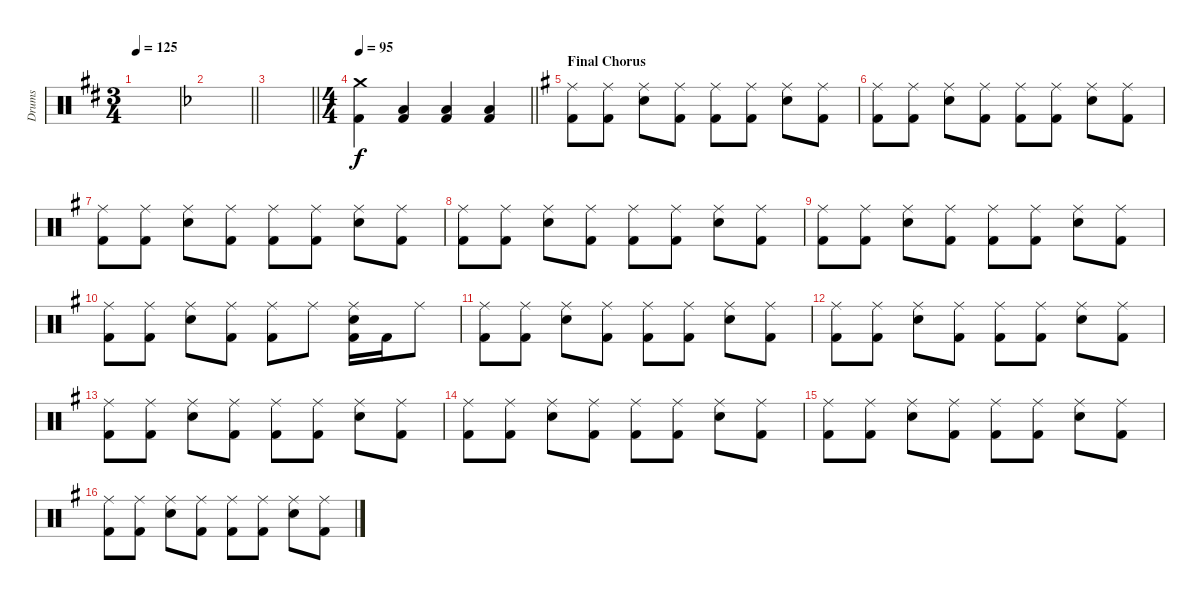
\track ("Drums" "Drums") {instrument percussion}
\staff {score}
\articulation defaults
\ts (3 4)
\tempo 125
\clef neutral
\ks d
|
\barLineRight lightlight
\ks f
|
\barLineRight lightlight
|
\ts (4 4)
\tempo 95
\barLineRight lightlight
("Crash medium (hit)" "Kick (hit) 2").4 ("Low Tom (hit)" "Kick (hit) 2").4 ("Low Tom (hit)" "Kick (hit) 2").4 ("Low Tom (hit)" "Kick (hit) 2").4 |
\section ("" "Final Chorus")
\ks g
("Ride (middle)" "Kick (hit) 2").8 ("Ride (middle)" "Kick (hit) 2").8 ("Ride (middle)" "Snare (hit) 2").8 ("Ride (middle)" "Kick (hit) 2").8 ("Ride (middle)" "Kick (hit) 2").8 ("Ride (middle)" "Kick (hit) 2").8 ("Ride (middle)" "Snare (hit) 2").8 ("Ride (middle)" "Kick (hit) 2").8 |
("Ride (middle)" "Kick (hit) 2").8 ("Ride (middle)" "Kick (hit) 2").8 ("Ride (middle)" "Snare (hit) 2").8 ("Ride (middle)" "Kick (hit) 2").8 ("Ride (middle)" "Kick (hit) 2").8 ("Ride (middle)" "Kick (hit) 2").8 ("Ride (middle)" "Snare (hit) 2").8 ("Ride (middle)" "Kick (hit) 2").8 |
("Ride (middle)" "Kick (hit) 2").8 ("Ride (middle)" "Kick (hit) 2").8 ("Ride (middle)" "Snare (hit) 2").8 ("Ride (middle)" "Kick (hit) 2").8 ("Ride (middle)" "Kick (hit) 2").8 ("Ride (middle)" "Kick (hit) 2").8 ("Ride (middle)" "Snare (hit) 2").8 ("Ride (middle)" "Kick (hit) 2").8 |
("Ride (middle)" "Kick (hit) 2").8 ("Ride (middle)" "Kick (hit) 2").8 ("Ride (middle)" "Snare (hit) 2").8 ("Ride (middle)" "Kick (hit) 2").8 ("Ride (middle)" "Kick (hit) 2").8 ("Ride (middle)" "Kick (hit) 2").8 ("Ride (middle)" "Snare (hit) 2").8 ("Ride (middle)" "Kick (hit) 2").8 |
("Ride (middle)" "Kick (hit) 2").8 ("Ride (middle)" "Kick (hit) 2").8 ("Ride (middle)" "Snare (hit) 2").8 ("Ride (middle)" "Kick (hit) 2").8 ("Ride (middle)" "Kick (hit) 2").8 ("Ride (middle)" "Kick (hit) 2").8 ("Ride (middle)" "Snare (hit) 2").8 ("Ride (middle)" "Kick (hit) 2").8 |
("Ride (middle)" "Kick (hit) 2").8 ("Ride (middle)" "Kick (hit) 2").8 ("Ride (middle)" "Snare (hit) 2").8 ("Ride (middle)" "Kick (hit) 2").8 ("Ride (middle)" "Kick (hit) 2").8 "Ride (middle)".8 ("Ride (middle)" "Snare (hit) 2" "Kick (hit) 2").16 "Kick (hit) 2".16 "Ride (middle)".8 |
("Ride (middle)" "Kick (hit) 2").8 ("Ride (middle)" "Kick (hit) 2").8 ("Ride (middle)" "Snare (hit) 2").8 ("Ride (middle)" "Kick (hit) 2").8 ("Ride (middle)" "Kick (hit) 2").8 ("Ride (middle)" "Kick (hit) 2").8 ("Ride (middle)" "Snare (hit) 2").8 ("Ride (middle)" "Kick (hit) 2").8 |
("Ride (middle)" "Kick (hit) 2").8 ("Ride (middle)" "Kick (hit) 2").8 ("Ride (middle)" "Snare (hit) 2").8 ("Ride (middle)" "Kick (hit) 2").8 ("Ride (middle)" "Kick (hit) 2").8 ("Ride (middle)" "Kick (hit) 2").8 ("Ride (middle)" "Snare (hit) 2").8 ("Ride (middle)" "Kick (hit) 2").8 |
("Ride (middle)" "Kick (hit) 2").8 ("Ride (middle)" "Kick (hit) 2").8 ("Ride (middle)" "Snare (hit) 2").8 ("Ride (middle)" "Kick (hit) 2").8 ("Ride (middle)" "Kick (hit) 2").8 ("Ride (middle)" "Kick (hit) 2").8 ("Ride (middle)" "Snare (hit) 2").8 ("Ride (middle)" "Kick (hit) 2").8 |
("Ride (middle)" "Kick (hit) 2").8 ("Ride (middle)" "Kick (hit) 2").8 ("Ride (middle)" "Snare (hit) 2").8 ("Ride (middle)" "Kick (hit) 2").8 ("Ride (middle)" "Kick (hit) 2").8 ("Ride (middle)" "Kick (hit) 2").8 ("Ride (middle)" "Snare (hit) 2").8 ("Ride (middle)" "Kick (hit) 2").8 |
("Ride (middle)" "Kick (hit) 2").8 ("Ride (middle)" "Kick (hit) 2").8 ("Ride (middle)" "Snare (hit) 2").8 ("Ride (middle)" "Kick (hit) 2").8 ("Ride (middle)" "Kick (hit) 2").8 ("Ride (middle)" "Kick (hit) 2").8 ("Ride (middle)" "Snare (hit) 2").8 ("Ride (middle)" "Kick (hit) 2").8 |
("Ride (middle)" "Kick (hit) 2").8 ("Ride (middle)" "Kick (hit) 2").8 ("Ride (middle)" "Snare (hit) 2").8 ("Ride (middle)" "Kick (hit) 2").8 ("Ride (middle)" "Kick (hit) 2").8 ("Ride (middle)" "Kick (hit) 2").8 ("Ride (middle)" "Snare (hit) 2").8 ("Ride (middle)" "Kick (hit) 2").8
